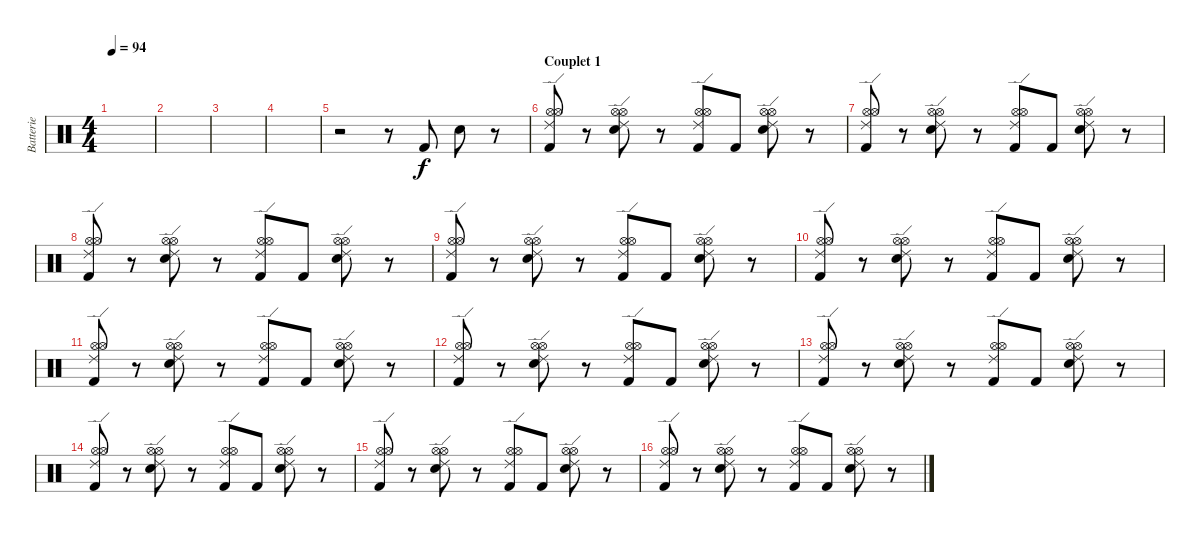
\track ("Batterie" "Batterie") {instrument percussion}
\staff {score}
\articulation defaults
\ts (4 4)
\tempo 94
\clef neutral
\ks c
|
|
|
|
r.2 r.8 "Kick (hit) 2".8 "Snare (hit) 2".8 r.8 |
\section ("" "Couplet 1")
("Hi-Hat (open)" "Hi-Hat (open)" "Ride (edge) 2" "Kick (hit) 2").8 r.8 ("Snare (hit) 2" "Hi-Hat (open)" "Hi-Hat (open)" "Ride (edge) 2").8 r.8 ("Hi-Hat (open)" "Hi-Hat (open)" "Ride (edge) 2" "Kick (hit) 2").8 "Kick (hit) 2".8 ("Snare (hit) 2" "Hi-Hat (open)" "Hi-Hat (open)" "Ride (edge) 2").8 r.8 |
("Hi-Hat (open)" "Hi-Hat (open)" "Ride (edge) 2" "Kick (hit) 2").8 r.8 ("Snare (hit) 2" "Hi-Hat (open)" "Hi-Hat (open)" "Ride (edge) 2").8 r.8 ("Hi-Hat (open)" "Hi-Hat (open)" "Ride (edge) 2" "Kick (hit) 2").8 "Kick (hit) 2".8 ("Snare (hit) 2" "Hi-Hat (open)" "Hi-Hat (open)" "Ride (edge) 2").8 r.8 |
("Hi-Hat (open)" "Hi-Hat (open)" "Ride (edge) 2" "Kick (hit) 2").8 r.8 ("Snare (hit) 2" "Hi-Hat (open)" "Hi-Hat (open)" "Ride (edge) 2").8 r.8 ("Hi-Hat (open)" "Hi-Hat (open)" "Ride (edge) 2" "Kick (hit) 2").8 "Kick (hit) 2".8 ("Snare (hit) 2" "Hi-Hat (open)" "Hi-Hat (open)" "Ride (edge) 2").8 r.8 |
("Hi-Hat (open)" "Hi-Hat (open)" "Ride (edge) 2" "Kick (hit) 2").8 r.8 ("Snare (hit) 2" "Hi-Hat (open)" "Hi-Hat (open)" "Ride (edge) 2").8 r.8 ("Hi-Hat (open)" "Hi-Hat (open)" "Ride (edge) 2" "Kick (hit) 2").8 "Kick (hit) 2".8 ("Snare (hit) 2" "Hi-Hat (open)" "Hi-Hat (open)" "Ride (edge) 2").8 r.8 |
("Hi-Hat (open)" "Hi-Hat (open)" "Ride (edge) 2" "Kick (hit) 2").8 r.8 ("Snare (hit) 2" "Hi-Hat (open)" "Hi-Hat (open)" "Ride (edge) 2").8 r.8 ("Hi-Hat (open)" "Hi-Hat (open)" "Ride (edge) 2" "Kick (hit) 2").8 "Kick (hit) 2".8 ("Snare (hit) 2" "Hi-Hat (open)" "Hi-Hat (open)" "Ride (edge) 2").8 r.8 |
("Hi-Hat (open)" "Hi-Hat (open)" "Ride (edge) 2" "Kick (hit) 2").8 r.8 ("Snare (hit) 2" "Hi-Hat (open)" "Hi-Hat (open)" "Ride (edge) 2").8 r.8 ("Hi-Hat (open)" "Hi-Hat (open)" "Ride (edge) 2" "Kick (hit) 2").8 "Kick (hit) 2".8 ("Snare (hit) 2" "Hi-Hat (open)" "Hi-Hat (open)" "Ride (edge) 2").8 r.8 |
("Hi-Hat (open)" "Hi-Hat (open)" "Ride (edge) 2" "Kick (hit) 2").8 r.8 ("Snare (hit) 2" "Hi-Hat (open)" "Hi-Hat (open)" "Ride (edge) 2").8 r.8 ("Hi-Hat (open)" "Hi-Hat (open)" "Ride (edge) 2" "Kick (hit) 2").8 "Kick (hit) 2".8 ("Snare (hit) 2" "Hi-Hat (open)" "Hi-Hat (open)" "Ride (edge) 2").8 r.8 |
("Hi-Hat (open)" "Hi-Hat (open)" "Ride (edge) 2" "Kick (hit) 2").8 r.8 ("Snare (hit) 2" "Hi-Hat (open)" "Hi-Hat (open)" "Ride (edge) 2").8 r.8 ("Hi-Hat (open)" "Hi-Hat (open)" "Ride (edge) 2" "Kick (hit) 2").8 "Kick (hit) 2".8 ("Snare (hit) 2" "Hi-Hat (open)" "Hi-Hat (open)" "Ride (edge) 2").8 r.8 |
("Hi-Hat (open)" "Hi-Hat (open)" "Ride (edge) 2" "Kick (hit) 2").8 r.8 ("Snare (hit) 2" "Hi-Hat (open)" "Hi-Hat (open)" "Ride (edge) 2").8 r.8 ("Hi-Hat (open)" "Hi-Hat (open)" "Ride (edge) 2" "Kick (hit) 2").8 "Kick (hit) 2".8 ("Snare (hit) 2" "Hi-Hat (open)" "Hi-Hat (open)" "Ride (edge) 2").8 r.8 |
("Hi-Hat (open)" "Hi-Hat (open)" "Ride (edge) 2" "Kick (hit) 2").8 r.8 ("Snare (hit) 2" "Hi-Hat (open)" "Hi-Hat (open)" "Ride (edge) 2").8 r.8 ("Hi-Hat (open)" "Hi-Hat (open)" "Ride (edge) 2" "Kick (hit) 2").8 "Kick (hit) 2".8 ("Snare (hit) 2" "Hi-Hat (open)" "Hi-Hat (open)" "Ride (edge) 2").8 r.8 |
("Hi-Hat (open)" "Hi-Hat (open)" "Ride (edge) 2" "Kick (hit) 2").8 r.8 ("Snare (hit) 2" "Hi-Hat (open)" "Hi-Hat (open)" "Ride (edge) 2").8 r.8 ("Hi-Hat (open)" "Hi-Hat (open)" "Ride (edge) 2" "Kick (hit) 2").8 "Kick (hit) 2".8 ("Snare (hit) 2" "Hi-Hat (open)" "Hi-Hat (open)" "Ride (edge) 2").8 r.8
